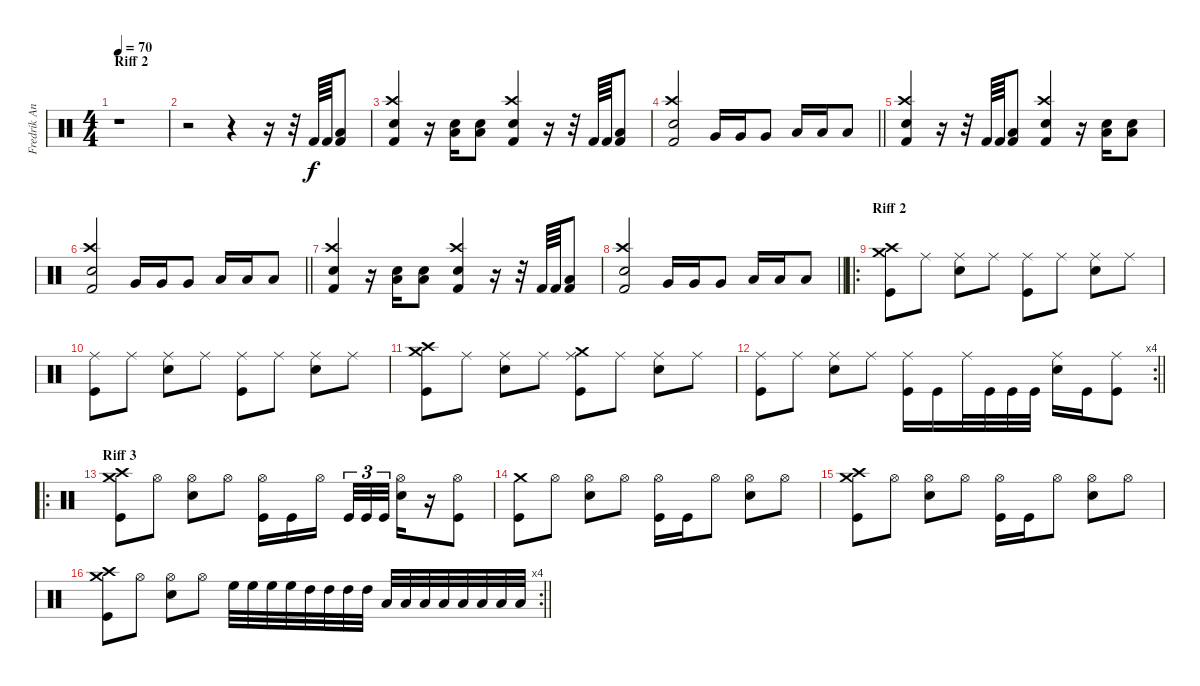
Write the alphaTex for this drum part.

\track ("Fredrik Andersson" "Fredrik An") {instrument percussion}
\staff {score}
\articulation defaults
\ts (4 4)
\section ("" "Riff 2")
\tempo 70
\clef neutral
\ks c
r.1{dy f} |
r.2 r.4 r.16 r.32 "Kick (hit) 2".64 "Kick (hit) 2".64 ("Low Floor Tom (hit)" "Kick (hit) 2").8 |
("Crash high (hit)" "Electric Snare (hit)" "Kick (hit) 2").4 r.16 ("Low Floor Tom (hit)" "Electric Snare (hit)").16 ("Low Floor Tom (hit)" "Electric Snare (hit)").8 ("Crash high (hit)" "Electric Snare (hit)" "Kick (hit) 2").4 r.16 r.32 "Kick (hit) 2".64 "Kick (hit) 2".64 ("Low Floor Tom (hit)" "Kick (hit) 2").8 |
\barLineRight lightlight
("Crash high (hit)" "Electric Snare (hit)" "Kick (hit) 2").2 "Very Low Tom (hit)".16 "Very Low Tom (hit)".16 "Very Low Tom (hit)".8 "Low Floor Tom (hit)".16 "Low Floor Tom (hit)".16 "Low Floor Tom (hit)".8 |
("Crash high (hit)" "Electric Snare (hit)" "Kick (hit) 2").4 r.16 r.32 "Kick (hit) 2".64 "Kick (hit) 2".64 ("Low Floor Tom (hit)" "Kick (hit) 2").8 ("Crash high (hit)" "Electric Snare (hit)" "Kick (hit) 2").4 r.16 ("Low Floor Tom (hit)" "Electric Snare (hit)").16 ("Low Floor Tom (hit)" "Electric Snare (hit)").8 |
\barLineRight lightlight
("Crash high (hit)" "Electric Snare (hit)" "Kick (hit) 2").2 "Very Low Tom (hit)".16 "Very Low Tom (hit)".16 "Very Low Tom (hit)".8 "Low Floor Tom (hit)".16 "Low Floor Tom (hit)".16 "Low Floor Tom (hit)".8 |
("Crash high (hit)" "Electric Snare (hit)" "Kick (hit) 2").4 r.16 ("Low Floor Tom (hit)" "Electric Snare (hit)").16 ("Low Floor Tom (hit)" "Electric Snare (hit)").8 ("Crash high (hit)" "Electric Snare (hit)" "Kick (hit) 2").4 r.16 r.32 "Kick (hit) 2".64 "Kick (hit) 2".64 ("Low Floor Tom (hit)" "Kick (hit) 2").8 |
\barLineRight lightlight
("Crash high (hit)" "Electric Snare (hit)" "Kick (hit) 2").2 "Very Low Tom (hit)".16 "Very Low Tom (hit)".16 "Very Low Tom (hit)".8 "Low Floor Tom (hit)".16 "Low Floor Tom (hit)".16 "Low Floor Tom (hit)".8 |
\ro
\section ("" "Riff 2")
("Crash high (hit)" "Crash medium (hit)" "Kick (hit)").8 "Ride (middle)".8 ("Ride (middle)" "Electric Snare (hit)").8 "Ride (middle)".8 ("Ride (middle)" "Kick (hit)").8 "Ride (middle)".8 ("Ride (middle)" "Electric Snare (hit)").8 "Ride (middle)".8 |
("Ride (middle)" "Kick (hit)").8 "Ride (middle)".8 ("Ride (middle)" "Electric Snare (hit)").8 "Ride (middle)".8 ("Ride (middle)" "Kick (hit)").8 "Ride (middle)".8 ("Ride (middle)" "Electric Snare (hit)").8 "Ride (middle)".8 |
("Crash high (hit)" "Crash medium (hit)" "Kick (hit)").8 "Ride (middle)".8 ("Ride (middle)" "Electric Snare (hit)").8 "Ride (middle)".8 ("Crash medium (hit)" "Ride (middle)" "Kick (hit)").8 "Ride (middle)".8 ("Ride (middle)" "Electric Snare (hit)").8 "Ride (middle)".8 |
\rc 4
\barLineRight lightlight
("Ride (middle)" "Kick (hit)").8 "Ride (middle)".8 ("Ride (middle)" "Electric Snare (hit)").8 "Ride (middle)".8 ("Ride (middle)" "Kick (hit)").16 "Kick (hit)".16 "Ride (middle)".32 "Kick (hit)".32 "Kick (hit)".32 "Kick (hit)".32 ("Ride (middle)" "Electric Snare (hit)").16 "Kick (hit)".16 ("Ride (middle)" "Kick (hit)").8 |
\ro
\section ("" "Riff 3")
("Crash high (hit)" "Crash medium (hit)" "Kick (hit)").8 "Hi-Hat (open)".8 ("Hi-Hat (open)" "Electric Snare (hit)").8 "Hi-Hat (open)".8 ("Hi-Hat (open)" "Kick (hit)").16 "Kick (hit)".16 "Hi-Hat (open)".16{beam splitsecondary} "Kick (hit)".32{tu (3 2)} "Kick (hit)".32{tu (3 2)} "Kick (hit)".32{tu (3 2)} ("Hi-Hat (open)" "Electric Snare (hit)").16 r.16 ("Hi-Hat (open)" "Kick (hit)").8 |
("Crash medium (hit)" "Kick (hit)").8 "Hi-Hat (open)".8 ("Hi-Hat (open)" "Electric Snare (hit)").8 "Hi-Hat (open)".8 ("Hi-Hat (open)" "Kick (hit)").16 "Kick (hit)".16 "Hi-Hat (open)".8 ("Hi-Hat (open)" "Electric Snare (hit)").8 "Hi-Hat (open)".8 |
("Crash high (hit)" "Crash medium (hit)" "Kick (hit)").8 "Hi-Hat (open)".8 ("Hi-Hat (open)" "Electric Snare (hit)").8 "Hi-Hat (open)".8 ("Hi-Hat (open)" "Kick (hit)").16 "Kick (hit)".16 "Hi-Hat (open)".8 ("Hi-Hat (open)" "Electric Snare (hit)").8 "Hi-Hat (open)".8 |
\rc 4
\barLineRight lightlight
("Crash high (hit)" "Crash medium (hit)" "Kick (hit)").8 "Hi-Hat (open)".8 ("Hi-Hat (open)" "Electric Snare (hit)").8 "Hi-Hat (open)".8 "High Floor Tom (hit)".32 "High Floor Tom (hit)".32 "High Floor Tom (hit)".32 "High Floor Tom (hit)".32 "High Tom (hit)".32 "High Tom (hit)".32 "High Tom (hit)".32 "High Tom (hit)".32 "Low Tom (hit)".32 "Low Tom (hit)".32 "Low Tom (hit)".32 "Low Tom (hit)".32 "Low Floor Tom (hit)".32 "Low Floor Tom (hit)".32 "Low Floor Tom (hit)".32 "Low Floor Tom (hit)".32
